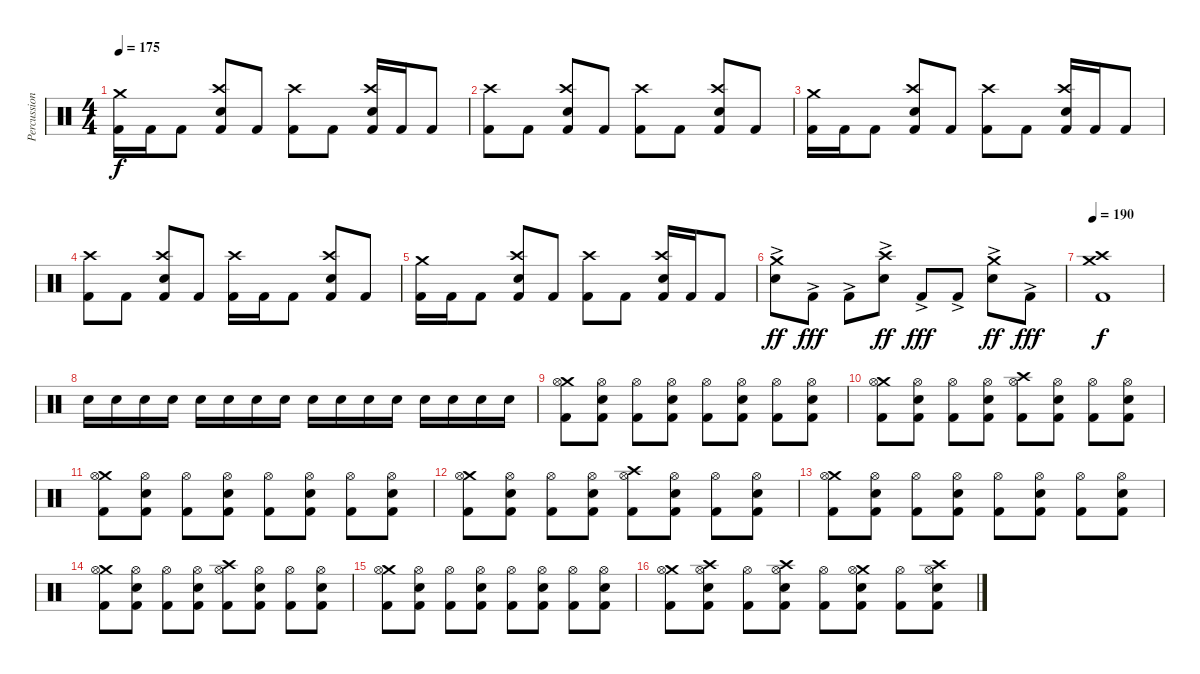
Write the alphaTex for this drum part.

\track ("Percussion" "Percussion") {instrument percussion}
\staff {score}
\articulation defaults
\ts (4 4)
\tempo 175
\clef neutral
\ks c
("Crash medium (hit)" "Kick (hit) 2").16{dy f} "Kick (hit) 2".16 "Kick (hit) 2".8 ("Crash high (hit)" "Snare (hit) 2" "Kick (hit) 2").8 "Kick (hit) 2".8 ("Crash high (hit)" "Kick (hit) 2").8 "Kick (hit) 2".8 ("Crash high (hit)" "Snare (hit) 2" "Kick (hit) 2").16 "Kick (hit) 2".16 "Kick (hit) 2".8 |
("Crash high (hit)" "Kick (hit) 2").8 "Kick (hit) 2".8 ("Crash high (hit)" "Snare (hit) 2" "Kick (hit) 2").8 "Kick (hit) 2".8 ("Crash high (hit)" "Kick (hit) 2").8 "Kick (hit) 2".8 ("Crash high (hit)" "Snare (hit) 2" "Kick (hit) 2").8 "Kick (hit) 2".8 |
("Crash medium (hit)" "Kick (hit) 2").16 "Kick (hit) 2".16 "Kick (hit) 2".8 ("Crash high (hit)" "Snare (hit) 2" "Kick (hit) 2").8 "Kick (hit) 2".8 ("Crash high (hit)" "Kick (hit) 2").8 "Kick (hit) 2".8 ("Crash high (hit)" "Snare (hit) 2" "Kick (hit) 2").16 "Kick (hit) 2".16 "Kick (hit) 2".8 |
("Crash high (hit)" "Kick (hit) 2").8 "Kick (hit) 2".8 ("Crash high (hit)" "Snare (hit) 2" "Kick (hit) 2").8 "Kick (hit) 2".8 ("Crash high (hit)" "Kick (hit) 2").16 "Kick (hit) 2".16 "Kick (hit) 2".8 ("Crash high (hit)" "Snare (hit) 2" "Kick (hit) 2").8 "Kick (hit) 2".8 |
("Crash medium (hit)" "Kick (hit) 2").16 "Kick (hit) 2".16 "Kick (hit) 2".8 ("Crash high (hit)" "Snare (hit) 2" "Kick (hit) 2").8 "Kick (hit) 2".8 ("Crash high (hit)" "Kick (hit) 2").8 "Kick (hit) 2".8 ("Crash high (hit)" "Snare (hit) 2" "Kick (hit) 2").16 "Kick (hit) 2".16 "Kick (hit) 2".8 |
("Crash medium (hit)"{ac} "Electric Snare (hit)").8{dy ff} "Kick (hit) 2"{ac}.8{dy fff} "Kick (hit) 2"{ac}.8 ("Crash high (hit)"{ac} "Electric Snare (hit)").8{dy ff} "Kick (hit) 2"{ac}.8{dy fff} "Kick (hit) 2"{ac}.8 ("Crash medium (hit)"{ac} "Electric Snare (hit)").8{dy ff} "Kick (hit) 2"{ac}.8{dy fff} |
\tempo 190
("Crash high (hit)" "Crash medium (hit)" "Kick (hit) 2").1{dy f} |
"Snare (hit) 2".16 "Snare (hit) 2".16 "Snare (hit) 2".16 "Snare (hit) 2".16 "Snare (hit) 2".16 "Snare (hit) 2".16 "Snare (hit) 2".16 "Snare (hit) 2".16 "Snare (hit) 2".16 "Snare (hit) 2".16 "Snare (hit) 2".16 "Snare (hit) 2".16 "Snare (hit) 2".16 "Snare (hit) 2".16 "Snare (hit) 2".16 "Snare (hit) 2".16 |
("Crash medium (hit)" "Hi-Hat (open)" "Kick (hit) 2").8 ("Hi-Hat (open)" "Snare (hit) 2" "Kick (hit) 2").8 ("Hi-Hat (open)" "Kick (hit) 2").8 ("Hi-Hat (open)" "Snare (hit) 2" "Kick (hit) 2").8 ("Hi-Hat (open)" "Kick (hit) 2").8 ("Hi-Hat (open)" "Snare (hit) 2" "Kick (hit) 2").8 ("Hi-Hat (open)" "Kick (hit) 2").8 ("Hi-Hat (open)" "Snare (hit) 2" "Kick (hit) 2").8 |
("Crash medium (hit)" "Hi-Hat (open)" "Kick (hit) 2").8 ("Hi-Hat (open)" "Snare (hit) 2" "Kick (hit) 2").8 ("Hi-Hat (open)" "Kick (hit) 2").8 ("Hi-Hat (open)" "Snare (hit) 2" "Kick (hit) 2").8 ("Crash high (hit)" "Hi-Hat (open)" "Kick (hit) 2").8 ("Hi-Hat (open)" "Snare (hit) 2" "Kick (hit) 2").8 ("Hi-Hat (open)" "Kick (hit) 2").8 ("Hi-Hat (open)" "Snare (hit) 2" "Kick (hit) 2").8 |
("Crash medium (hit)" "Hi-Hat (open)" "Kick (hit) 2").8 ("Hi-Hat (open)" "Snare (hit) 2" "Kick (hit) 2").8 ("Hi-Hat (open)" "Kick (hit) 2").8 ("Hi-Hat (open)" "Snare (hit) 2" "Kick (hit) 2").8 ("Hi-Hat (open)" "Kick (hit) 2").8 ("Hi-Hat (open)" "Snare (hit) 2" "Kick (hit) 2").8 ("Hi-Hat (open)" "Kick (hit) 2").8 ("Hi-Hat (open)" "Snare (hit) 2" "Kick (hit) 2").8 |
("Crash medium (hit)" "Hi-Hat (open)" "Kick (hit) 2").8 ("Hi-Hat (open)" "Snare (hit) 2" "Kick (hit) 2").8 ("Hi-Hat (open)" "Kick (hit) 2").8 ("Hi-Hat (open)" "Snare (hit) 2" "Kick (hit) 2").8 ("Crash high (hit)" "Hi-Hat (open)" "Kick (hit) 2").8 ("Hi-Hat (open)" "Snare (hit) 2" "Kick (hit) 2").8 ("Hi-Hat (open)" "Kick (hit) 2").8 ("Hi-Hat (open)" "Snare (hit) 2" "Kick (hit) 2").8 |
("Crash medium (hit)" "Hi-Hat (open)" "Kick (hit) 2").8 ("Hi-Hat (open)" "Snare (hit) 2" "Kick (hit) 2").8 ("Hi-Hat (open)" "Kick (hit) 2").8 ("Hi-Hat (open)" "Snare (hit) 2" "Kick (hit) 2").8 ("Hi-Hat (open)" "Kick (hit) 2").8 ("Hi-Hat (open)" "Snare (hit) 2" "Kick (hit) 2").8 ("Hi-Hat (open)" "Kick (hit) 2").8 ("Hi-Hat (open)" "Snare (hit) 2" "Kick (hit) 2").8 |
("Crash medium (hit)" "Hi-Hat (open)" "Kick (hit) 2").8 ("Hi-Hat (open)" "Snare (hit) 2" "Kick (hit) 2").8 ("Hi-Hat (open)" "Kick (hit) 2").8 ("Hi-Hat (open)" "Snare (hit) 2" "Kick (hit) 2").8 ("Crash high (hit)" "Hi-Hat (open)" "Kick (hit) 2").8 ("Hi-Hat (open)" "Snare (hit) 2" "Kick (hit) 2").8 ("Hi-Hat (open)" "Kick (hit) 2").8 ("Hi-Hat (open)" "Snare (hit) 2" "Kick (hit) 2").8 |
("Crash medium (hit)" "Hi-Hat (open)" "Kick (hit) 2").8 ("Hi-Hat (open)" "Snare (hit) 2" "Kick (hit) 2").8 ("Hi-Hat (open)" "Kick (hit) 2").8 ("Hi-Hat (open)" "Snare (hit) 2" "Kick (hit) 2").8 ("Hi-Hat (open)" "Kick (hit) 2").8 ("Hi-Hat (open)" "Snare (hit) 2" "Kick (hit) 2").8 ("Hi-Hat (open)" "Kick (hit) 2").8 ("Hi-Hat (open)" "Snare (hit) 2" "Kick (hit) 2").8 |
("Crash medium (hit)" "Hi-Hat (open)" "Kick (hit) 2").8 ("Crash high (hit)" "Hi-Hat (open)" "Snare (hit) 2" "Kick (hit) 2").8 ("Hi-Hat (open)" "Kick (hit) 2").8 ("Crash high (hit)" "Hi-Hat (open)" "Snare (hit) 2" "Kick (hit) 2").8 ("Hi-Hat (open)" "Kick (hit) 2").8 ("Crash medium (hit)" "Hi-Hat (open)" "Snare (hit) 2" "Kick (hit) 2").8 ("Hi-Hat (open)" "Kick (hit) 2").8 ("Crash high (hit)" "Hi-Hat (open)" "Snare (hit) 2" "Kick (hit) 2").8
